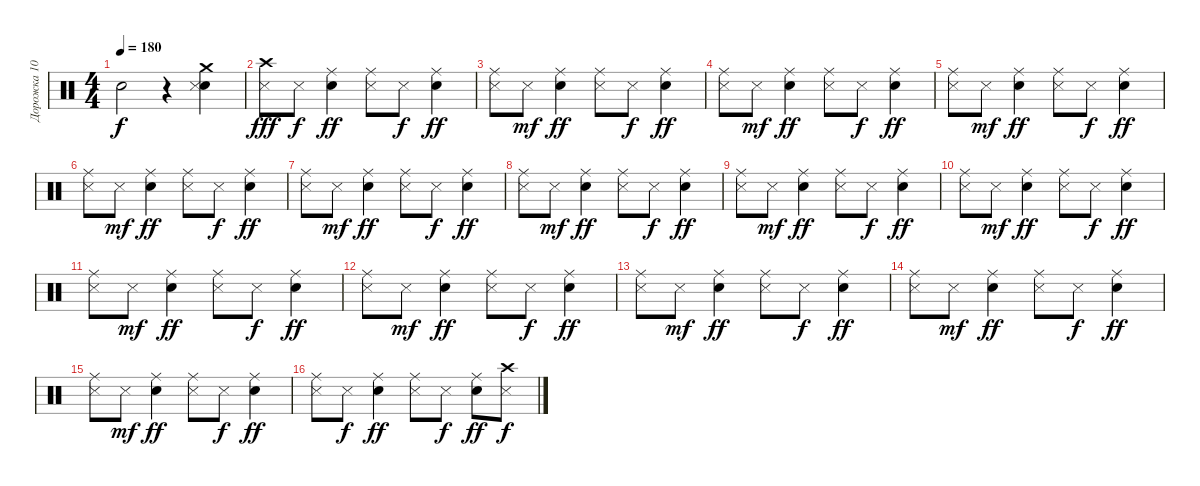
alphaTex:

\track ("Дорожка 10" "Дорожка 10") {instrument percussion}
\staff {score}
\articulation defaults
\ts (4 4)
\tempo 180
\clef neutral
\ks c "Electric Snare (hit)".2{dy f}
r.4 ("Snare (hit) 2" "Metronome (hit)" "Crash medium (hit)").4 |
("Metronome (hit)" "Crash high (hit)").8{dy fff} "Metronome (hit)".8{dy f} ("Snare (hit) 2" "Ride (middle)").4{dy ff} ("Metronome (hit)" "Ride (middle)").8 "Metronome (hit)".8{dy f} ("Snare (hit) 2" "Ride (middle)").4{dy ff} |
("Metronome (hit)" "Ride (middle)").8 "Metronome (hit)".8{dy mf} ("Snare (hit) 2" "Ride (middle)").4{dy ff} ("Metronome (hit)" "Ride (middle)").8 "Metronome (hit)".8{dy f} ("Snare (hit) 2" "Ride (middle)").4{dy ff} |
("Metronome (hit)" "Ride (middle)").8 "Metronome (hit)".8{dy mf} ("Snare (hit) 2" "Ride (middle)").4{dy ff} ("Metronome (hit)" "Ride (middle)").8 "Metronome (hit)".8{dy f} ("Snare (hit) 2" "Ride (middle)").4{dy ff} |
("Metronome (hit)" "Ride (middle)").8 "Metronome (hit)".8{dy mf} ("Snare (hit) 2" "Ride (middle)").4{dy ff} ("Metronome (hit)" "Ride (middle)").8 "Metronome (hit)".8{dy f} ("Snare (hit) 2" "Ride (middle)").4{dy ff} |
("Metronome (hit)" "Ride (middle)").8 "Metronome (hit)".8{dy mf} ("Snare (hit) 2" "Ride (middle)").4{dy ff} ("Metronome (hit)" "Ride (middle)").8 "Metronome (hit)".8{dy f} ("Snare (hit) 2" "Ride (middle)").4{dy ff} |
("Metronome (hit)" "Ride (middle)").8 "Metronome (hit)".8{dy mf} ("Snare (hit) 2" "Ride (middle)").4{dy ff} ("Metronome (hit)" "Ride (middle)").8 "Metronome (hit)".8{dy f} ("Snare (hit) 2" "Ride (middle)").4{dy ff} |
("Metronome (hit)" "Ride (middle)").8 "Metronome (hit)".8{dy mf} ("Snare (hit) 2" "Ride (middle)").4{dy ff} ("Metronome (hit)" "Ride (middle)").8 "Metronome (hit)".8{dy f} ("Snare (hit) 2" "Ride (middle)").4{dy ff} |
("Metronome (hit)" "Ride (middle)").8 "Metronome (hit)".8{dy mf} ("Snare (hit) 2" "Ride (middle)").4{dy ff} ("Metronome (hit)" "Ride (middle)").8 "Metronome (hit)".8{dy f} ("Snare (hit) 2" "Ride (middle)").4{dy ff} |
("Metronome (hit)" "Ride (middle)").8 "Metronome (hit)".8{dy mf} ("Snare (hit) 2" "Ride (middle)").4{dy ff} ("Metronome (hit)" "Ride (middle)").8 "Metronome (hit)".8{dy f} ("Snare (hit) 2" "Ride (middle)").4{dy ff} |
("Metronome (hit)" "Ride (middle)").8 "Metronome (hit)".8{dy mf} ("Snare (hit) 2" "Ride (middle)").4{dy ff} ("Metronome (hit)" "Ride (middle)").8 "Metronome (hit)".8{dy f} ("Snare (hit) 2" "Ride (middle)").4{dy ff} |
("Metronome (hit)" "Ride (middle)").8 "Metronome (hit)".8{dy mf} ("Snare (hit) 2" "Ride (middle)").4{dy ff} ("Metronome (hit)" "Ride (middle)").8 "Metronome (hit)".8{dy f} ("Snare (hit) 2" "Ride (middle)").4{dy ff} |
("Metronome (hit)" "Ride (middle)").8 "Metronome (hit)".8{dy mf} ("Snare (hit) 2" "Ride (middle)").4{dy ff} ("Metronome (hit)" "Ride (middle)").8 "Metronome (hit)".8{dy f} ("Snare (hit) 2" "Ride (middle)").4{dy ff} |
("Metronome (hit)" "Ride (middle)").8 "Metronome (hit)".8{dy mf} ("Snare (hit) 2" "Ride (middle)").4{dy ff} ("Metronome (hit)" "Ride (middle)").8 "Metronome (hit)".8{dy f} ("Snare (hit) 2" "Ride (middle)").4{dy ff} |
("Metronome (hit)" "Ride (middle)").8 "Metronome (hit)".8{dy mf} ("Snare (hit) 2" "Ride (middle)").4{dy ff} ("Metronome (hit)" "Ride (middle)").8 "Metronome (hit)".8{dy f} ("Snare (hit) 2" "Ride (middle)").4{dy ff} |
("Metronome (hit)" "Ride (middle)").8 "Metronome (hit)".8{dy f} ("Snare (hit) 2" "Ride (middle)").4{dy ff} ("Metronome (hit)" "Ride (middle)").8 "Metronome (hit)".8{dy f} ("Snare (hit) 2" "Ride (middle)").8{dy ff} ("Metronome (hit)" "Crash high (hit)").8{dy f}
